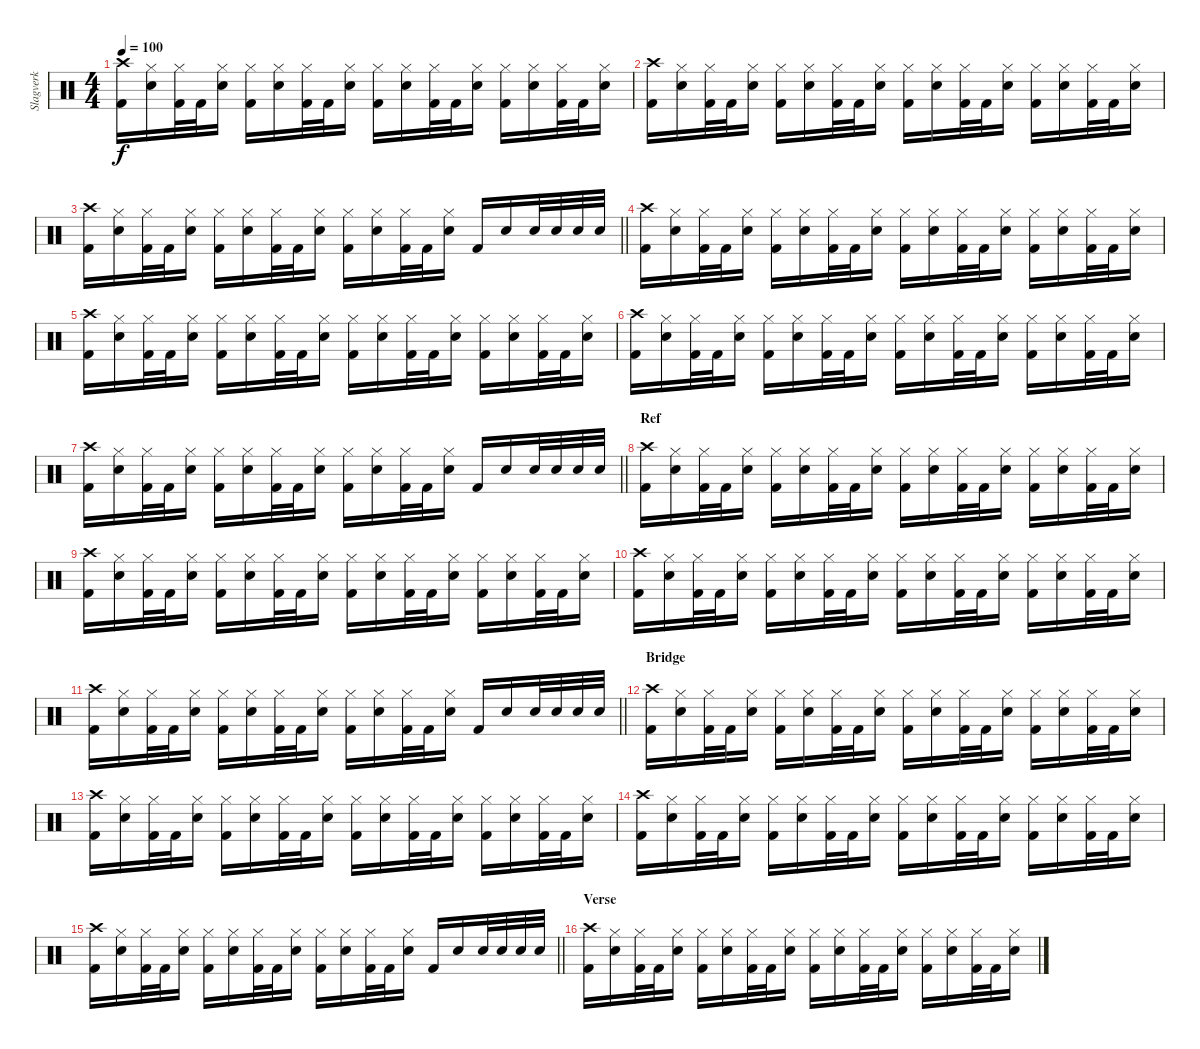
\track ("Slagverk" "Slagverk") {instrument percussion}
\staff {score}
\articulation defaults
\ts (4 4)
\tempo 100
\clef neutral
\ks c
("Kick (hit) 2" "Crash high (hit)").16{dy f} ("Snare (hit) 2" "Hi-Hat (closed)").16 ("Kick (hit) 2" "Hi-Hat (closed)").32 "Kick (hit) 2".32 ("Snare (hit) 2" "Hi-Hat (closed)").16 ("Kick (hit) 2" "Hi-Hat (closed)").16 ("Snare (hit) 2" "Hi-Hat (closed)").16 ("Kick (hit) 2" "Hi-Hat (closed)").32 "Kick (hit) 2".32 ("Snare (hit) 2" "Hi-Hat (closed)").16 ("Kick (hit) 2" "Hi-Hat (closed)").16 ("Snare (hit) 2" "Hi-Hat (closed)").16 ("Kick (hit) 2" "Hi-Hat (closed)").32 "Kick (hit) 2".32 ("Snare (hit) 2" "Hi-Hat (closed)").16 ("Kick (hit) 2" "Hi-Hat (closed)").16 ("Snare (hit) 2" "Hi-Hat (closed)").16 ("Kick (hit) 2" "Hi-Hat (closed)").32 "Kick (hit) 2".32 ("Snare (hit) 2" "Hi-Hat (closed)").16 |
("Kick (hit) 2" "Crash high (hit)").16 ("Snare (hit) 2" "Hi-Hat (closed)").16 ("Kick (hit) 2" "Hi-Hat (closed)").32 "Kick (hit) 2".32 ("Snare (hit) 2" "Hi-Hat (closed)").16 ("Kick (hit) 2" "Hi-Hat (closed)").16 ("Snare (hit) 2" "Hi-Hat (closed)").16 ("Kick (hit) 2" "Hi-Hat (closed)").32 "Kick (hit) 2".32 ("Snare (hit) 2" "Hi-Hat (closed)").16 ("Kick (hit) 2" "Hi-Hat (closed)").16 ("Snare (hit) 2" "Hi-Hat (closed)").16 ("Kick (hit) 2" "Hi-Hat (closed)").32 "Kick (hit) 2".32 ("Snare (hit) 2" "Hi-Hat (closed)").16 ("Kick (hit) 2" "Hi-Hat (closed)").16 ("Snare (hit) 2" "Hi-Hat (closed)").16 ("Kick (hit) 2" "Hi-Hat (closed)").32 "Kick (hit) 2".32 ("Snare (hit) 2" "Hi-Hat (closed)").16 |
\barLineRight lightlight
("Kick (hit) 2" "Crash high (hit)").16 ("Snare (hit) 2" "Hi-Hat (closed)").16 ("Kick (hit) 2" "Hi-Hat (closed)").32 "Kick (hit) 2".32 ("Snare (hit) 2" "Hi-Hat (closed)").16 ("Kick (hit) 2" "Hi-Hat (closed)").16 ("Snare (hit) 2" "Hi-Hat (closed)").16 ("Kick (hit) 2" "Hi-Hat (closed)").32 "Kick (hit) 2".32 ("Snare (hit) 2" "Hi-Hat (closed)").16 ("Kick (hit) 2" "Hi-Hat (closed)").16 ("Snare (hit) 2" "Hi-Hat (closed)").16 ("Kick (hit) 2" "Hi-Hat (closed)").32 "Kick (hit) 2".32 ("Snare (hit) 2" "Hi-Hat (closed)").16 "Kick (hit) 2".16 "Snare (hit) 2".16 "Snare (hit) 2".32 "Snare (hit) 2".32 "Snare (hit) 2".32 "Snare (hit) 2".32 |
("Kick (hit) 2" "Crash high (hit)").16 ("Snare (hit) 2" "Hi-Hat (closed)").16 ("Kick (hit) 2" "Hi-Hat (closed)").32 "Kick (hit) 2".32 ("Snare (hit) 2" "Hi-Hat (closed)").16 ("Kick (hit) 2" "Hi-Hat (closed)").16 ("Snare (hit) 2" "Hi-Hat (closed)").16 ("Kick (hit) 2" "Hi-Hat (closed)").32 "Kick (hit) 2".32 ("Snare (hit) 2" "Hi-Hat (closed)").16 ("Kick (hit) 2" "Hi-Hat (closed)").16 ("Snare (hit) 2" "Hi-Hat (closed)").16 ("Kick (hit) 2" "Hi-Hat (closed)").32 "Kick (hit) 2".32 ("Snare (hit) 2" "Hi-Hat (closed)").16 ("Kick (hit) 2" "Hi-Hat (closed)").16 ("Snare (hit) 2" "Hi-Hat (closed)").16 ("Kick (hit) 2" "Hi-Hat (closed)").32 "Kick (hit) 2".32 ("Snare (hit) 2" "Hi-Hat (closed)").16 |
("Kick (hit) 2" "Crash high (hit)").16 ("Snare (hit) 2" "Hi-Hat (closed)").16 ("Kick (hit) 2" "Hi-Hat (closed)").32 "Kick (hit) 2".32 ("Snare (hit) 2" "Hi-Hat (closed)").16 ("Kick (hit) 2" "Hi-Hat (closed)").16 ("Snare (hit) 2" "Hi-Hat (closed)").16 ("Kick (hit) 2" "Hi-Hat (closed)").32 "Kick (hit) 2".32 ("Snare (hit) 2" "Hi-Hat (closed)").16 ("Kick (hit) 2" "Hi-Hat (closed)").16 ("Snare (hit) 2" "Hi-Hat (closed)").16 ("Kick (hit) 2" "Hi-Hat (closed)").32 "Kick (hit) 2".32 ("Snare (hit) 2" "Hi-Hat (closed)").16 ("Kick (hit) 2" "Hi-Hat (closed)").16 ("Snare (hit) 2" "Hi-Hat (closed)").16 ("Kick (hit) 2" "Hi-Hat (closed)").32 "Kick (hit) 2".32 ("Snare (hit) 2" "Hi-Hat (closed)").16 |
("Kick (hit) 2" "Crash high (hit)").16 ("Snare (hit) 2" "Hi-Hat (closed)").16 ("Kick (hit) 2" "Hi-Hat (closed)").32 "Kick (hit) 2".32 ("Snare (hit) 2" "Hi-Hat (closed)").16 ("Kick (hit) 2" "Hi-Hat (closed)").16 ("Snare (hit) 2" "Hi-Hat (closed)").16 ("Kick (hit) 2" "Hi-Hat (closed)").32 "Kick (hit) 2".32 ("Snare (hit) 2" "Hi-Hat (closed)").16 ("Kick (hit) 2" "Hi-Hat (closed)").16 ("Snare (hit) 2" "Hi-Hat (closed)").16 ("Kick (hit) 2" "Hi-Hat (closed)").32 "Kick (hit) 2".32 ("Snare (hit) 2" "Hi-Hat (closed)").16 ("Kick (hit) 2" "Hi-Hat (closed)").16 ("Snare (hit) 2" "Hi-Hat (closed)").16 ("Kick (hit) 2" "Hi-Hat (closed)").32 "Kick (hit) 2".32 ("Snare (hit) 2" "Hi-Hat (closed)").16 |
\barLineRight lightlight
("Kick (hit) 2" "Crash high (hit)").16 ("Snare (hit) 2" "Hi-Hat (closed)").16 ("Kick (hit) 2" "Hi-Hat (closed)").32 "Kick (hit) 2".32 ("Snare (hit) 2" "Hi-Hat (closed)").16 ("Kick (hit) 2" "Hi-Hat (closed)").16 ("Snare (hit) 2" "Hi-Hat (closed)").16 ("Kick (hit) 2" "Hi-Hat (closed)").32 "Kick (hit) 2".32 ("Snare (hit) 2" "Hi-Hat (closed)").16 ("Kick (hit) 2" "Hi-Hat (closed)").16 ("Snare (hit) 2" "Hi-Hat (closed)").16 ("Kick (hit) 2" "Hi-Hat (closed)").32 "Kick (hit) 2".32 ("Snare (hit) 2" "Hi-Hat (closed)").16 "Kick (hit) 2".16 "Snare (hit) 2".16 "Snare (hit) 2".32 "Snare (hit) 2".32 "Snare (hit) 2".32 "Snare (hit) 2".32 |
\section ("" "Ref")
("Kick (hit) 2" "Crash high (hit)").16 ("Snare (hit) 2" "Hi-Hat (closed)").16 ("Kick (hit) 2" "Hi-Hat (closed)").32 "Kick (hit) 2".32 ("Snare (hit) 2" "Hi-Hat (closed)").16 ("Kick (hit) 2" "Hi-Hat (closed)").16 ("Snare (hit) 2" "Hi-Hat (closed)").16 ("Kick (hit) 2" "Hi-Hat (closed)").32 "Kick (hit) 2".32 ("Snare (hit) 2" "Hi-Hat (closed)").16 ("Kick (hit) 2" "Hi-Hat (closed)").16 ("Snare (hit) 2" "Hi-Hat (closed)").16 ("Kick (hit) 2" "Hi-Hat (closed)").32 "Kick (hit) 2".32 ("Snare (hit) 2" "Hi-Hat (closed)").16 ("Kick (hit) 2" "Hi-Hat (closed)").16 ("Snare (hit) 2" "Hi-Hat (closed)").16 ("Kick (hit) 2" "Hi-Hat (closed)").32 "Kick (hit) 2".32 ("Snare (hit) 2" "Hi-Hat (closed)").16 |
("Kick (hit) 2" "Crash high (hit)").16 ("Snare (hit) 2" "Hi-Hat (closed)").16 ("Kick (hit) 2" "Hi-Hat (closed)").32 "Kick (hit) 2".32 ("Snare (hit) 2" "Hi-Hat (closed)").16 ("Kick (hit) 2" "Hi-Hat (closed)").16 ("Snare (hit) 2" "Hi-Hat (closed)").16 ("Kick (hit) 2" "Hi-Hat (closed)").32 "Kick (hit) 2".32 ("Snare (hit) 2" "Hi-Hat (closed)").16 ("Kick (hit) 2" "Hi-Hat (closed)").16 ("Snare (hit) 2" "Hi-Hat (closed)").16 ("Kick (hit) 2" "Hi-Hat (closed)").32 "Kick (hit) 2".32 ("Snare (hit) 2" "Hi-Hat (closed)").16 ("Kick (hit) 2" "Hi-Hat (closed)").16 ("Snare (hit) 2" "Hi-Hat (closed)").16 ("Kick (hit) 2" "Hi-Hat (closed)").32 "Kick (hit) 2".32 ("Snare (hit) 2" "Hi-Hat (closed)").16 |
("Kick (hit) 2" "Crash high (hit)").16 ("Snare (hit) 2" "Hi-Hat (closed)").16 ("Kick (hit) 2" "Hi-Hat (closed)").32 "Kick (hit) 2".32 ("Snare (hit) 2" "Hi-Hat (closed)").16 ("Kick (hit) 2" "Hi-Hat (closed)").16 ("Snare (hit) 2" "Hi-Hat (closed)").16 ("Kick (hit) 2" "Hi-Hat (closed)").32 "Kick (hit) 2".32 ("Snare (hit) 2" "Hi-Hat (closed)").16 ("Kick (hit) 2" "Hi-Hat (closed)").16 ("Snare (hit) 2" "Hi-Hat (closed)").16 ("Kick (hit) 2" "Hi-Hat (closed)").32 "Kick (hit) 2".32 ("Snare (hit) 2" "Hi-Hat (closed)").16 ("Kick (hit) 2" "Hi-Hat (closed)").16 ("Snare (hit) 2" "Hi-Hat (closed)").16 ("Kick (hit) 2" "Hi-Hat (closed)").32 "Kick (hit) 2".32 ("Snare (hit) 2" "Hi-Hat (closed)").16 |
\barLineRight lightlight
("Kick (hit) 2" "Crash high (hit)").16 ("Snare (hit) 2" "Hi-Hat (closed)").16 ("Kick (hit) 2" "Hi-Hat (closed)").32 "Kick (hit) 2".32 ("Snare (hit) 2" "Hi-Hat (closed)").16 ("Kick (hit) 2" "Hi-Hat (closed)").16 ("Snare (hit) 2" "Hi-Hat (closed)").16 ("Kick (hit) 2" "Hi-Hat (closed)").32 "Kick (hit) 2".32 ("Snare (hit) 2" "Hi-Hat (closed)").16 ("Kick (hit) 2" "Hi-Hat (closed)").16 ("Snare (hit) 2" "Hi-Hat (closed)").16 ("Kick (hit) 2" "Hi-Hat (closed)").32 "Kick (hit) 2".32 ("Snare (hit) 2" "Hi-Hat (closed)").16 "Kick (hit) 2".16 "Snare (hit) 2".16 "Snare (hit) 2".32 "Snare (hit) 2".32 "Snare (hit) 2".32 "Snare (hit) 2".32 |
\section ("" "Bridge")
("Kick (hit) 2" "Crash high (hit)").16 ("Snare (hit) 2" "Hi-Hat (closed)").16 ("Kick (hit) 2" "Hi-Hat (closed)").32 "Kick (hit) 2".32 ("Snare (hit) 2" "Hi-Hat (closed)").16 ("Kick (hit) 2" "Hi-Hat (closed)").16 ("Snare (hit) 2" "Hi-Hat (closed)").16 ("Kick (hit) 2" "Hi-Hat (closed)").32 "Kick (hit) 2".32 ("Snare (hit) 2" "Hi-Hat (closed)").16 ("Kick (hit) 2" "Hi-Hat (closed)").16 ("Snare (hit) 2" "Hi-Hat (closed)").16 ("Kick (hit) 2" "Hi-Hat (closed)").32 "Kick (hit) 2".32 ("Snare (hit) 2" "Hi-Hat (closed)").16 ("Kick (hit) 2" "Hi-Hat (closed)").16 ("Snare (hit) 2" "Hi-Hat (closed)").16 ("Kick (hit) 2" "Hi-Hat (closed)").32 "Kick (hit) 2".32 ("Snare (hit) 2" "Hi-Hat (closed)").16 |
("Kick (hit) 2" "Crash high (hit)").16 ("Snare (hit) 2" "Hi-Hat (closed)").16 ("Kick (hit) 2" "Hi-Hat (closed)").32 "Kick (hit) 2".32 ("Snare (hit) 2" "Hi-Hat (closed)").16 ("Kick (hit) 2" "Hi-Hat (closed)").16 ("Snare (hit) 2" "Hi-Hat (closed)").16 ("Kick (hit) 2" "Hi-Hat (closed)").32 "Kick (hit) 2".32 ("Snare (hit) 2" "Hi-Hat (closed)").16 ("Kick (hit) 2" "Hi-Hat (closed)").16 ("Snare (hit) 2" "Hi-Hat (closed)").16 ("Kick (hit) 2" "Hi-Hat (closed)").32 "Kick (hit) 2".32 ("Snare (hit) 2" "Hi-Hat (closed)").16 ("Kick (hit) 2" "Hi-Hat (closed)").16 ("Snare (hit) 2" "Hi-Hat (closed)").16 ("Kick (hit) 2" "Hi-Hat (closed)").32 "Kick (hit) 2".32 ("Snare (hit) 2" "Hi-Hat (closed)").16 |
("Kick (hit) 2" "Crash high (hit)").16 ("Snare (hit) 2" "Hi-Hat (closed)").16 ("Kick (hit) 2" "Hi-Hat (closed)").32 "Kick (hit) 2".32 ("Snare (hit) 2" "Hi-Hat (closed)").16 ("Kick (hit) 2" "Hi-Hat (closed)").16 ("Snare (hit) 2" "Hi-Hat (closed)").16 ("Kick (hit) 2" "Hi-Hat (closed)").32 "Kick (hit) 2".32 ("Snare (hit) 2" "Hi-Hat (closed)").16 ("Kick (hit) 2" "Hi-Hat (closed)").16 ("Snare (hit) 2" "Hi-Hat (closed)").16 ("Kick (hit) 2" "Hi-Hat (closed)").32 "Kick (hit) 2".32 ("Snare (hit) 2" "Hi-Hat (closed)").16 ("Kick (hit) 2" "Hi-Hat (closed)").16 ("Snare (hit) 2" "Hi-Hat (closed)").16 ("Kick (hit) 2" "Hi-Hat (closed)").32 "Kick (hit) 2".32 ("Snare (hit) 2" "Hi-Hat (closed)").16 |
\barLineRight lightlight
("Kick (hit) 2" "Crash high (hit)").16 ("Snare (hit) 2" "Hi-Hat (closed)").16 ("Kick (hit) 2" "Hi-Hat (closed)").32 "Kick (hit) 2".32 ("Snare (hit) 2" "Hi-Hat (closed)").16 ("Kick (hit) 2" "Hi-Hat (closed)").16 ("Snare (hit) 2" "Hi-Hat (closed)").16 ("Kick (hit) 2" "Hi-Hat (closed)").32 "Kick (hit) 2".32 ("Snare (hit) 2" "Hi-Hat (closed)").16 ("Kick (hit) 2" "Hi-Hat (closed)").16 ("Snare (hit) 2" "Hi-Hat (closed)").16 ("Kick (hit) 2" "Hi-Hat (closed)").32 "Kick (hit) 2".32 ("Snare (hit) 2" "Hi-Hat (closed)").16 "Kick (hit) 2".16 "Snare (hit) 2".16 "Snare (hit) 2".32 "Snare (hit) 2".32 "Snare (hit) 2".32 "Snare (hit) 2".32 |
\section ("" "Verse")
("Kick (hit) 2" "Crash high (hit)").16 ("Snare (hit) 2" "Hi-Hat (closed)").16 ("Kick (hit) 2" "Hi-Hat (closed)").32 "Kick (hit) 2".32 ("Snare (hit) 2" "Hi-Hat (closed)").16 ("Kick (hit) 2" "Hi-Hat (closed)").16 ("Snare (hit) 2" "Hi-Hat (closed)").16 ("Kick (hit) 2" "Hi-Hat (closed)").32 "Kick (hit) 2".32 ("Snare (hit) 2" "Hi-Hat (closed)").16 ("Kick (hit) 2" "Hi-Hat (closed)").16 ("Snare (hit) 2" "Hi-Hat (closed)").16 ("Kick (hit) 2" "Hi-Hat (closed)").32 "Kick (hit) 2".32 ("Snare (hit) 2" "Hi-Hat (closed)").16 ("Kick (hit) 2" "Hi-Hat (closed)").16 ("Snare (hit) 2" "Hi-Hat (closed)").16 ("Kick (hit) 2" "Hi-Hat (closed)").32 "Kick (hit) 2".32 ("Snare (hit) 2" "Hi-Hat (closed)").16
